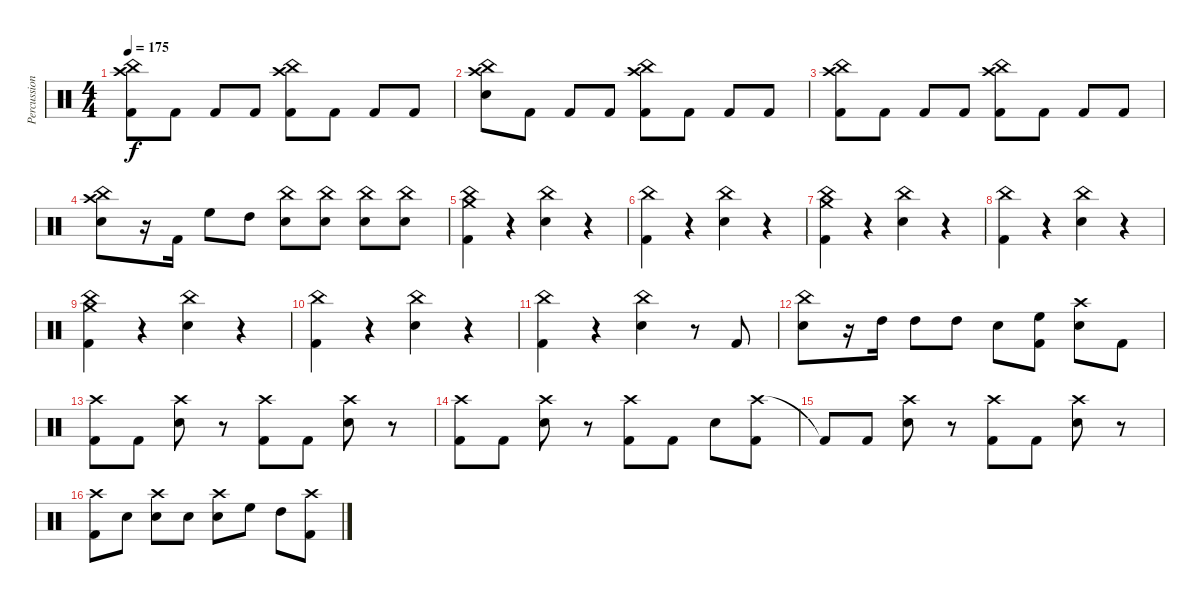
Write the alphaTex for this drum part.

\track ("Percussion" "Percussion") {instrument percussion}
\staff {score}
\articulation defaults
\ts (4 4)
\tempo 175
\clef neutral
\ks c
("Crash high (hit)" "China (hit)" "Kick (hit) 2").8{dy f} "Kick (hit) 2".8 "Kick (hit) 2".8 "Kick (hit) 2".8 ("Crash high (hit)" "China (hit)" "Kick (hit) 2").8 "Kick (hit) 2".8 "Kick (hit) 2".8 "Kick (hit) 2".8 |
("Crash high (hit)" "China (hit)" "Electric Snare (hit)").8 "Kick (hit) 2".8 "Kick (hit) 2".8 "Kick (hit) 2".8 ("Crash high (hit)" "China (hit)" "Kick (hit) 2").8 "Kick (hit) 2".8 "Kick (hit) 2".8 "Kick (hit) 2".8 |
("Crash high (hit)" "China (hit)" "Kick (hit) 2").8 "Kick (hit) 2".8 "Kick (hit) 2".8 "Kick (hit) 2".8 ("Crash high (hit)" "China (hit)" "Kick (hit) 2").8 "Kick (hit) 2".8 "Kick (hit) 2".8 "Kick (hit) 2".8 |
("Crash high (hit)" "China (hit)" "Electric Snare (hit)").8 r.16 "Kick (hit) 2".16 "High Floor Tom (hit)".8 "High Tom (hit)".8 ("China (hit)" "Electric Snare (hit)").8 ("China (hit)" "Electric Snare (hit)").8 ("China (hit)" "Electric Snare (hit)").8 ("China (hit)" "Electric Snare (hit)").8 |
("China (hit)" "Crash medium (hit)" "Kick (hit) 2").4 r.4 ("China (hit)" "Electric Snare (hit)").4 r.4 |
("China (hit)" "Kick (hit) 2").4 r.4 ("China (hit)" "Electric Snare (hit)").4 r.4 |
("China (hit)" "Crash medium (hit)" "Kick (hit) 2").4 r.4 ("China (hit)" "Electric Snare (hit)").4 r.4 |
("China (hit)" "Kick (hit) 2").4 r.4 ("China (hit)" "Electric Snare (hit)").4 r.4 |
("China (hit)" "Crash medium (hit)" "Kick (hit) 2").4 r.4 ("China (hit)" "Electric Snare (hit)").4 r.4 |
("China (hit)" "Kick (hit) 2").4 r.4 ("China (hit)" "Electric Snare (hit)").4 r.4 |
("China (hit)" "Kick (hit) 2").4 r.4 ("China (hit)" "Electric Snare (hit)").4 r.8 "Kick (hit) 2".8 |
("China (hit)" "Electric Snare (hit)").8 r.16 "High Tom (hit)".16 "High Tom (hit)".8 "High Tom (hit)".8 "Electric Snare (hit)".8 ("High Floor Tom (hit)" "Kick (hit) 2").8 ("Crash high (hit)" "Electric Snare (hit)").8 "Kick (hit) 2".8 |
("Crash high (hit)" "Kick (hit) 2").8 "Kick (hit) 2".8 ("Crash high (hit)" "Electric Snare (hit)").8 r.8 ("Crash high (hit)" "Kick (hit) 2").8 "Kick (hit) 2".8 ("Crash high (hit)" "Electric Snare (hit)").8 r.8 |
("Crash high (hit)" "Kick (hit) 2").8 "Kick (hit) 2".8 ("Crash high (hit)" "Electric Snare (hit)").8 r.8 ("Crash high (hit)" "Kick (hit) 2").8 "Kick (hit) 2".8 "Electric Snare (hit)".8 ("Crash high (hit)" "Kick (hit) 2").8 |
"Kick (hit) 2"{t}.8 "Kick (hit) 2".8 ("Crash high (hit)" "Electric Snare (hit)").8 r.8 ("Crash high (hit)" "Kick (hit) 2").8 "Kick (hit) 2".8 ("Crash high (hit)" "Electric Snare (hit)").8 r.8 |
("Crash high (hit)" "Kick (hit) 2").8 "Electric Snare (hit)".8 ("Crash high (hit)" "Electric Snare (hit)").8 "Electric Snare (hit)".8 ("Crash high (hit)" "Electric Snare (hit)").8 "High Floor Tom (hit)".8 "High Tom (hit)".8 ("Crash high (hit)" "Kick (hit) 2").8
